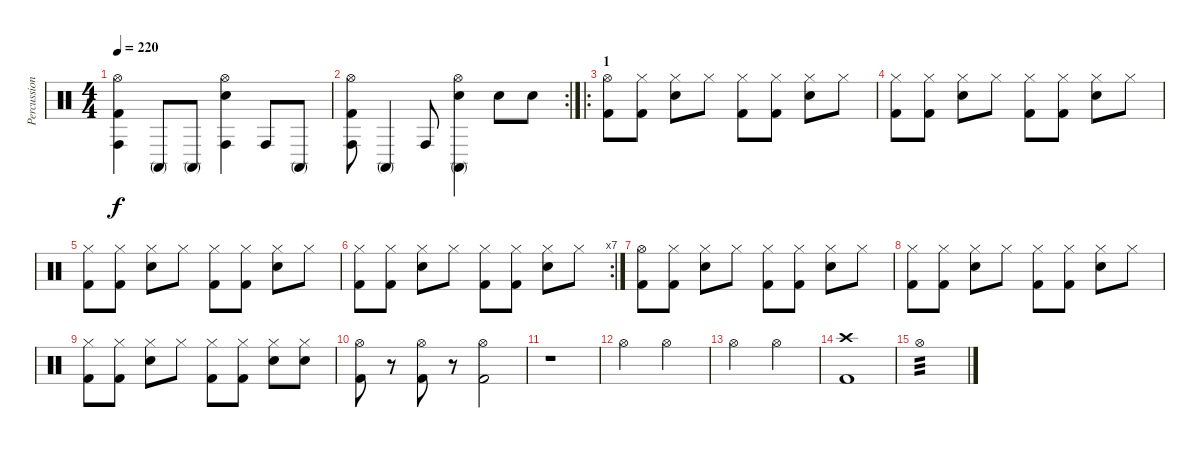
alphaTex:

\track ("Percussion" "Percussion") {instrument percussion}
\staff {score}
\articulation defaults
\ts (4 4)
\tempo 220
\clef neutral
\ks c
("Hi-Hat (open)" "Conga high (hit)" "Kick (hit) 2").4{dy f} "Conga high (mute)".8 "Conga high (mute)".8 ("Hi-Hat (open)" "Conga high (hit)" "Snare (hit) 2").4 "Conga high (hit)".8 "Conga high (mute)".8 |
\rc 2
("Hi-Hat (open)" "Conga high (hit)" "Kick (hit) 2").8 "Conga high (mute)".4 "Conga high (hit)".8 ("Hi-Hat (open)" "Conga high (mute)" "Snare (hit) 2").4 "Snare (hit) 2".8 "Snare (hit) 2".8 |
\ro
\section ("" "1")
("Hi-Hat (open)" "Kick (hit) 2").8 ("Hi-Hat (closed)" "Kick (hit) 2").8 ("Hi-Hat (closed)" "Snare (hit) 2").8 "Hi-Hat (closed)".8 ("Hi-Hat (closed)" "Kick (hit) 2").8 ("Hi-Hat (closed)" "Kick (hit) 2").8 ("Hi-Hat (closed)" "Snare (hit) 2").8 "Hi-Hat (closed)".8 |
("Hi-Hat (closed)" "Kick (hit) 2").8 ("Hi-Hat (closed)" "Kick (hit) 2").8 ("Hi-Hat (closed)" "Snare (hit) 2").8 "Hi-Hat (closed)".8 ("Hi-Hat (closed)" "Kick (hit) 2").8 ("Hi-Hat (closed)" "Kick (hit) 2").8 ("Hi-Hat (closed)" "Snare (hit) 2").8 "Hi-Hat (closed)".8 |
("Hi-Hat (closed)" "Kick (hit) 2").8 ("Hi-Hat (closed)" "Kick (hit) 2").8 ("Hi-Hat (closed)" "Snare (hit) 2").8 "Hi-Hat (closed)".8 ("Hi-Hat (closed)" "Kick (hit) 2").8 ("Hi-Hat (closed)" "Kick (hit) 2").8 ("Hi-Hat (closed)" "Snare (hit) 2").8 "Hi-Hat (closed)".8 |
\rc 7
("Hi-Hat (closed)" "Kick (hit) 2").8 ("Hi-Hat (closed)" "Kick (hit) 2").8 ("Hi-Hat (closed)" "Snare (hit) 2").8 "Hi-Hat (closed)".8 ("Hi-Hat (closed)" "Kick (hit) 2").8 ("Hi-Hat (closed)" "Kick (hit) 2").8 ("Hi-Hat (closed)" "Snare (hit) 2").8 "Hi-Hat (closed)".8 |
("Hi-Hat (open)" "Kick (hit) 2").8 ("Hi-Hat (closed)" "Kick (hit) 2").8 ("Hi-Hat (closed)" "Snare (hit) 2").8 "Hi-Hat (closed)".8 ("Hi-Hat (closed)" "Kick (hit) 2").8 ("Hi-Hat (closed)" "Kick (hit) 2").8 ("Hi-Hat (closed)" "Snare (hit) 2").8 "Hi-Hat (closed)".8 |
("Hi-Hat (closed)" "Kick (hit) 2").8 ("Hi-Hat (closed)" "Kick (hit) 2").8 ("Hi-Hat (closed)" "Snare (hit) 2").8 "Hi-Hat (closed)".8 ("Hi-Hat (closed)" "Kick (hit) 2").8 ("Hi-Hat (closed)" "Kick (hit) 2").8 ("Hi-Hat (closed)" "Snare (hit) 2").8 "Hi-Hat (closed)".8 |
("Hi-Hat (closed)" "Kick (hit) 2").8 ("Hi-Hat (closed)" "Kick (hit) 2").8 ("Hi-Hat (closed)" "Snare (hit) 2").8 "Hi-Hat (closed)".8 ("Hi-Hat (closed)" "Kick (hit) 2").8 ("Hi-Hat (closed)" "Kick (hit) 2").8 ("Hi-Hat (closed)" "Snare (hit) 2").8 ("Hi-Hat (closed)" "Snare (hit) 2").8 |
("Hi-Hat (open)" "Kick (hit) 2").8 r.8 ("Hi-Hat (open)" "Kick (hit) 2").8 r.8 ("Hi-Hat (open)" "Kick (hit) 2").2 |
r.1 |
"Hi-Hat (open)".2 "Hi-Hat (open)".2 |
"Hi-Hat (open)".2 "Hi-Hat (open)".2 |
("Crash high (hit)" "Kick (hit) 2").1 |
"Hi-Hat (open)".1{tp 3}
